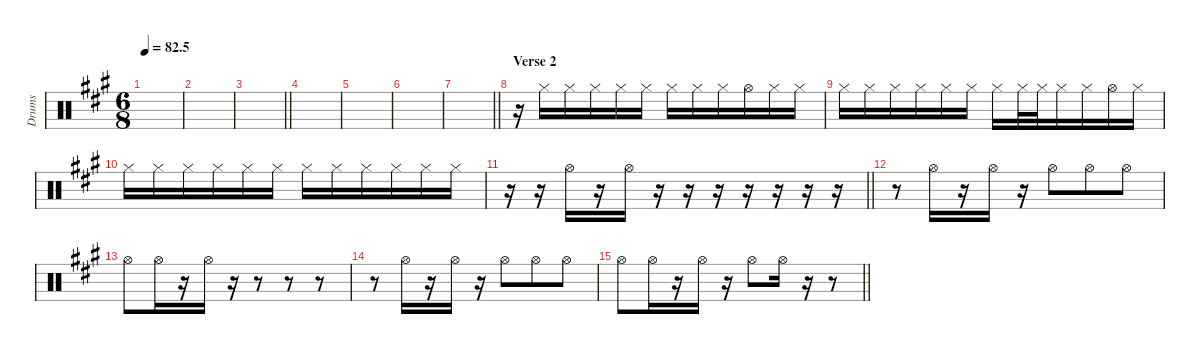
\defaultSystemsLayout 4
\hideDynamics
\bracketExtendMode nobrackets
\otherSystemsTrackNameOrientation horizontal
\track ("Hihat" "Drums") {instrument percussion}
\staff {score}
\articulation defaults
\ts (6 8)
\tempo
82.5
\accidentals auto
\clef neutral
\ottava regular
\simile none
\scale
0.333333
\ks a
|
\scale
0.333333 |
\scale
0.333333
\barLineRight lightlight
|
\scale
0.333333 |
\scale
0.333333 |
\scale
0.333333 |
\scale
0.333333
\barLineRight lightlight
|
\section ("" "Verse 2")
\scale
0.333333 r.16 "Hi-Hat (closed)"{acc forcenatural}.16 "Hi-Hat (closed)"{acc forcenatural}.16 "Hi-Hat (closed)"{acc forcenatural}.16 "Hi-Hat (closed)"{acc forcenatural}.16 "Hi-Hat (closed)"{acc forcenatural}.16 "Hi-Hat (closed)"{acc forcenatural}.16 "Hi-Hat (closed)"{acc forcenatural}.16 "Hi-Hat (closed)"{acc forcenatural}.16 "Hi-Hat (open)"{acc forcenatural}.16 "Hi-Hat (closed)"{acc forcenatural}.16 "Hi-Hat (closed)"{acc forcenatural}.16 |
\scale
0.333333 "Hi-Hat (closed)"{acc forcenatural}.16 "Hi-Hat (closed)"{acc forcenatural}.16 "Hi-Hat (closed)"{acc forcenatural}.16 "Hi-Hat (closed)"{acc forcenatural}.16 "Hi-Hat (closed)"{acc forcenatural}.16 "Hi-Hat (closed)"{acc forcenatural}.16 "Hi-Hat (closed)"{acc forcenatural}.16 "Hi-Hat (closed)"{acc forcenatural}.32 "Hi-Hat (closed)"{acc forcenatural}.32 "Hi-Hat (closed)"{acc forcenatural}.16 "Hi-Hat (closed)"{acc forcenatural}.16 "Hi-Hat (open)"{acc forcenatural}.16 "Hi-Hat (closed)"{acc forcenatural}.16 |
\scale
0.333333 "Hi-Hat (closed)"{acc forcenatural}.16 "Hi-Hat (closed)"{acc forcenatural}.16 "Hi-Hat (closed)"{acc forcenatural}.16 "Hi-Hat (closed)"{acc forcenatural}.16 "Hi-Hat (closed)"{acc forcenatural}.16 "Hi-Hat (closed)"{acc forcenatural}.16 "Hi-Hat (closed)"{acc forcenatural}.16 "Hi-Hat (closed)"{acc forcenatural}.16 "Hi-Hat (closed)"{acc forcenatural}.16 "Hi-Hat (closed)"{acc forcenatural}.16 "Hi-Hat (closed)"{acc forcenatural}.16 "Hi-Hat (closed)"{acc forcenatural}.16 |
\scale
0.333333
\barLineRight lightlight
r.16 r.16 "Hi-Hat (open)"{acc forcenatural}.16 r.16 "Hi-Hat (open)"{acc forcenatural}.16 r.16 r.16 r.16 r.16 r.16 r.16 r.16 |
\scale
0.333333 r.8 "Hi-Hat (open)"{acc forcenatural}.16 r.16 "Hi-Hat (open)"{acc forcenatural}.16 r.16 "Hi-Hat (open)"{acc forcenatural}.8 "Hi-Hat (open)"{acc forcenatural}.8 "Hi-Hat (open)"{acc forcenatural}.8 |
\scale
0.333333 "Hi-Hat (open)"{acc forcenatural}.8 "Hi-Hat (open)"{acc forcenatural}.16 r.16 "Hi-Hat (open)"{acc forcenatural}.16 r.16 r.8 r.8 r.8 |
\scale
0.333333 r.8 "Hi-Hat (open)"{acc forcenatural}.16 r.16 "Hi-Hat (open)"{acc forcenatural}.16 r.16 "Hi-Hat (open)"{acc forcenatural}.8 "Hi-Hat (open)"{acc forcenatural}.8 "Hi-Hat (open)"{acc forcenatural}.8 |
\scale
0.333333
\barLineRight lightlight "Hi-Hat (open)"{acc forcenatural}.8 "Hi-Hat (open)"{acc forcenatural}.16
r.16 "Hi-Hat (open)"{acc forcenatural}.16 r.16 "Hi-Hat (open)"{acc forcenatural}.8 "Hi-Hat (open)"{acc forcenatural}.16 r.16 r.8 |
\scale
0.333333
